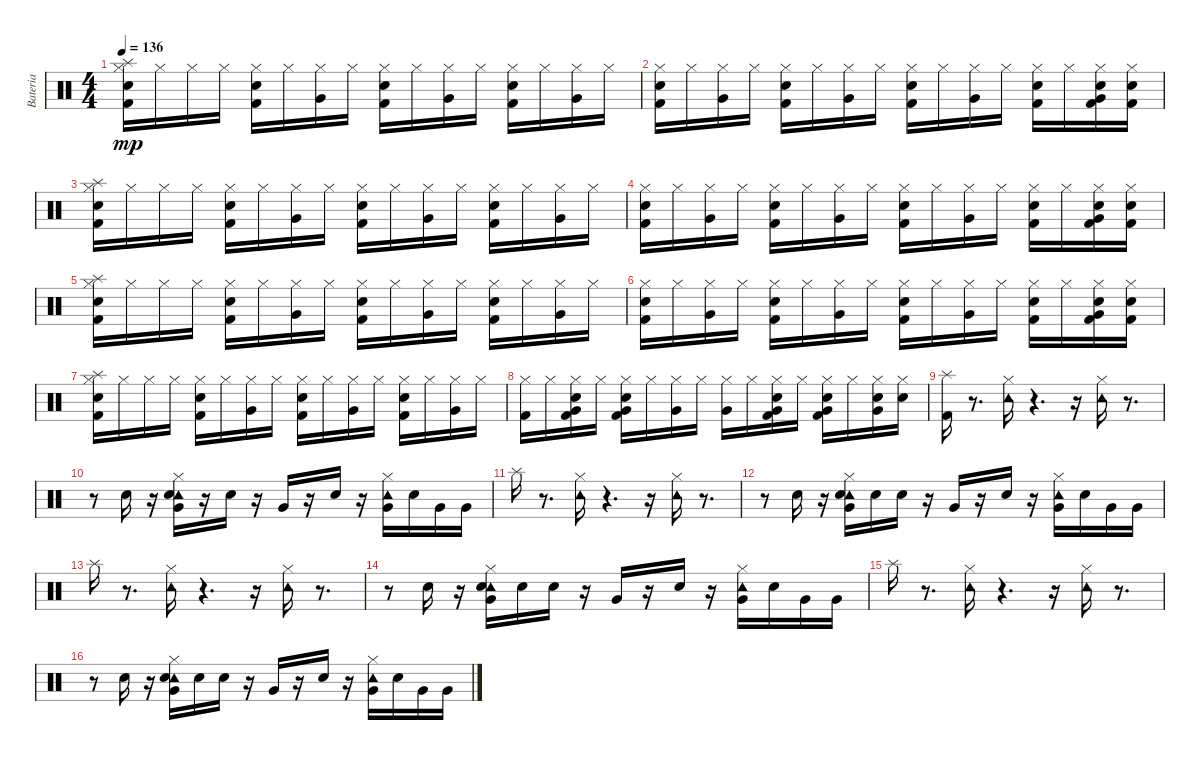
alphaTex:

\track ("Bateria" "Bateria") {instrument percussion}
\staff {score}
\articulation defaults
\ts (4 4)
\tempo 136
\clef neutral
\ks c
("Hi-Hat (closed)" "Splash (hit)" "Kick (hit) 2" "Snare (hit) 2").16{dy mp} "Hi-Hat (closed)".16 "Hi-Hat (closed)".16 "Hi-Hat (closed)".16 ("Hi-Hat (closed)" "Kick (hit) 2" "Snare (hit) 2").16 "Hi-Hat (closed)".16 ("Hi-Hat (closed)" "Very Low Tom (hit)").16 "Hi-Hat (closed)".16 ("Hi-Hat (closed)" "Kick (hit) 2" "Snare (hit) 2").16 "Hi-Hat (closed)".16 ("Hi-Hat (closed)" "Very Low Tom (hit)").16 "Hi-Hat (closed)".16 ("Hi-Hat (closed)" "Kick (hit) 2" "Snare (hit) 2").16 "Hi-Hat (closed)".16 ("Hi-Hat (closed)" "Very Low Tom (hit)").16 "Hi-Hat (closed)".16 |
("Hi-Hat (closed)" "Kick (hit) 2" "Snare (hit) 2").16 "Hi-Hat (closed)".16 ("Hi-Hat (closed)" "Very Low Tom (hit)").16 "Hi-Hat (closed)".16 ("Hi-Hat (closed)" "Kick (hit) 2" "Snare (hit) 2").16 "Hi-Hat (closed)".16 ("Hi-Hat (closed)" "Very Low Tom (hit)").16 "Hi-Hat (closed)".16 ("Hi-Hat (closed)" "Kick (hit) 2" "Snare (hit) 2").16 "Hi-Hat (closed)".16 ("Hi-Hat (closed)" "Very Low Tom (hit)").16 "Hi-Hat (closed)".16 ("Hi-Hat (closed)" "Kick (hit) 2" "Snare (hit) 2").16 "Hi-Hat (closed)".16 ("Hi-Hat (closed)" "Snare (hit) 2" "Kick (hit) 2" "Very Low Tom (hit)").16 ("Hi-Hat (closed)" "Snare (hit) 2" "Kick (hit) 2").16 |
("Hi-Hat (closed)" "Snare (hit) 2" "Kick (hit) 2" "Splash (hit)").16 "Hi-Hat (closed)".16 "Hi-Hat (closed)".16 "Hi-Hat (closed)".16 ("Hi-Hat (closed)" "Kick (hit) 2" "Snare (hit) 2").16 "Hi-Hat (closed)".16 ("Hi-Hat (closed)" "Very Low Tom (hit)").16 "Hi-Hat (closed)".16 ("Hi-Hat (closed)" "Kick (hit) 2" "Snare (hit) 2").16 "Hi-Hat (closed)".16 ("Hi-Hat (closed)" "Very Low Tom (hit)").16 "Hi-Hat (closed)".16 ("Hi-Hat (closed)" "Kick (hit) 2" "Snare (hit) 2").16 "Hi-Hat (closed)".16 ("Hi-Hat (closed)" "Very Low Tom (hit)").16 "Hi-Hat (closed)".16 |
("Hi-Hat (closed)" "Kick (hit) 2" "Snare (hit) 2").16 "Hi-Hat (closed)".16 ("Hi-Hat (closed)" "Very Low Tom (hit)").16 "Hi-Hat (closed)".16 ("Hi-Hat (closed)" "Kick (hit) 2" "Snare (hit) 2").16 "Hi-Hat (closed)".16 ("Hi-Hat (closed)" "Very Low Tom (hit)").16 "Hi-Hat (closed)".16 ("Hi-Hat (closed)" "Kick (hit) 2" "Snare (hit) 2").16 "Hi-Hat (closed)".16 ("Hi-Hat (closed)" "Very Low Tom (hit)").16 "Hi-Hat (closed)".16 ("Hi-Hat (closed)" "Kick (hit) 2" "Snare (hit) 2").16 "Hi-Hat (closed)".16 ("Hi-Hat (closed)" "Snare (hit) 2" "Kick (hit) 2" "Very Low Tom (hit)").16 ("Hi-Hat (closed)" "Snare (hit) 2" "Kick (hit) 2").16 |
("Hi-Hat (closed)" "Splash (hit)" "Kick (hit) 2" "Snare (hit) 2").16 "Hi-Hat (closed)".16 "Hi-Hat (closed)".16 "Hi-Hat (closed)".16 ("Hi-Hat (closed)" "Kick (hit) 2" "Snare (hit) 2").16 "Hi-Hat (closed)".16 ("Hi-Hat (closed)" "Very Low Tom (hit)").16 "Hi-Hat (closed)".16 ("Hi-Hat (closed)" "Kick (hit) 2" "Snare (hit) 2").16 "Hi-Hat (closed)".16 ("Hi-Hat (closed)" "Very Low Tom (hit)").16 "Hi-Hat (closed)".16 ("Hi-Hat (closed)" "Kick (hit) 2" "Snare (hit) 2").16 "Hi-Hat (closed)".16 ("Hi-Hat (closed)" "Very Low Tom (hit)").16 "Hi-Hat (closed)".16 |
("Hi-Hat (closed)" "Kick (hit) 2" "Snare (hit) 2").16 "Hi-Hat (closed)".16 ("Hi-Hat (closed)" "Very Low Tom (hit)").16 "Hi-Hat (closed)".16 ("Hi-Hat (closed)" "Kick (hit) 2" "Snare (hit) 2").16 "Hi-Hat (closed)".16 ("Hi-Hat (closed)" "Very Low Tom (hit)").16 "Hi-Hat (closed)".16 ("Hi-Hat (closed)" "Kick (hit) 2" "Snare (hit) 2").16 "Hi-Hat (closed)".16 ("Hi-Hat (closed)" "Very Low Tom (hit)").16 "Hi-Hat (closed)".16 ("Hi-Hat (closed)" "Kick (hit) 2" "Snare (hit) 2").16 "Hi-Hat (closed)".16 ("Hi-Hat (closed)" "Snare (hit) 2" "Kick (hit) 2" "Very Low Tom (hit)").16 ("Hi-Hat (closed)" "Snare (hit) 2" "Kick (hit) 2").16 |
("Hi-Hat (closed)" "Snare (hit) 2" "Kick (hit) 2" "Splash (hit)").16 "Hi-Hat (closed)".16 "Hi-Hat (closed)".16 "Hi-Hat (closed)".16 ("Hi-Hat (closed)" "Kick (hit) 2" "Snare (hit) 2").16 "Hi-Hat (closed)".16 ("Hi-Hat (closed)" "Very Low Tom (hit)").16 "Hi-Hat (closed)".16 ("Hi-Hat (closed)" "Kick (hit) 2" "Snare (hit) 2").16 "Hi-Hat (closed)".16 ("Hi-Hat (closed)" "Very Low Tom (hit)").16 "Hi-Hat (closed)".16 ("Hi-Hat (closed)" "Kick (hit) 2" "Snare (hit) 2").16 "Hi-Hat (closed)".16 ("Hi-Hat (closed)" "Very Low Tom (hit)").16 "Hi-Hat (closed)".16 |
("Hi-Hat (closed)" "Kick (hit) 2").16 "Hi-Hat (closed)".16 ("Hi-Hat (closed)" "Very Low Tom (hit)" "Snare (hit) 2" "Kick (hit) 2").16 "Hi-Hat (closed)".16 ("Hi-Hat (closed)" "Kick (hit) 2" "Very Low Tom (hit)" "Snare (hit) 2").16 "Hi-Hat (closed)".16 ("Hi-Hat (closed)" "Very Low Tom (hit)").16 "Hi-Hat (closed)".16 ("Hi-Hat (closed)" "Very Low Tom (hit)").16 "Hi-Hat (closed)".16 ("Hi-Hat (closed)" "Snare (hit) 2" "Kick (hit) 2" "Very Low Tom (hit)").16 "Hi-Hat (closed)".16 ("Hi-Hat (closed)" "Kick (hit) 2" "Snare (hit) 2" "Very Low Tom (hit)").16 "Hi-Hat (closed)".16 ("Hi-Hat (closed)" "Snare (hit) 2" "Very Low Tom (hit)").16 ("Hi-Hat (closed)" "Snare (hit) 2").16 |
("Splash (hit)" "Kick (hit) 2").16{volume 16} r.8{d} ("Hi-Hat (closed)" "Tambourine (hit)").16{volume 16} r.4{d} r.16 ("Hi-Hat (closed)" "Tambourine (hit)").16{volume 14} r.8{d} |
r.8 "Snare (hit) 2".16{volume 14} r.16 ("Tambourine (hit)" "Hi-Hat (closed)" "Snare (hit) 2" "Very Low Tom (hit)").16{volume 14} r.16 "Snare (hit) 2".16{volume 13} r.16 "Very Low Tom (hit)".16{volume 13} r.16 "Snare (hit) 2".16{volume 13} r.16 ("Hi-Hat (closed)" "Tambourine (hit)" "Very Low Tom (hit)").16{volume 12} "Snare (hit) 2".16{volume 12} "Very Low Tom (hit)".16{volume 12} "Very Low Tom (hit)".16{volume 12} |
"Splash (hit)".16{volume 12} r.8{d} ("Tambourine (hit)" "Hi-Hat (closed)").16{volume 12} r.4{d} r.16 ("Hi-Hat (closed)" "Tambourine (hit)").16{volume 10} r.8{d} |
r.8 "Snare (hit) 2".16{volume 10} r.16 ("Tambourine (hit)" "Hi-Hat (closed)" "Snare (hit) 2" "Very Low Tom (hit)").16{volume 10} "Snare (hit) 2".16{volume 9} "Snare (hit) 2".16{volume 9} r.16 "Very Low Tom (hit)".16{volume 9} r.16 "Snare (hit) 2".16{volume 9} r.16 ("Hi-Hat (closed)" "Tambourine (hit)" "Very Low Tom (hit)").16{volume 8} "Snare (hit) 2".16{volume 8} "Very Low Tom (hit)".16{volume 8} "Very Low Tom (hit)".16{volume 8} |
"Splash (hit)".16{volume 8} r.8{d} ("Hi-Hat (closed)" "Tambourine (hit)").16{volume 8} r.4{d} r.16 ("Hi-Hat (closed)" "Tambourine (hit)").16{volume 6} r.8{d} |
r.8 "Snare (hit) 2".16{volume 6} r.16 ("Tambourine (hit)" "Hi-Hat (closed)" "Snare (hit) 2" "Very Low Tom (hit)").16{volume 6} "Snare (hit) 2".16{volume 5} "Snare (hit) 2".16{volume 5} r.16 "Very Low Tom (hit)".16{volume 5} r.16 "Snare (hit) 2".16{volume 5} r.16 ("Hi-Hat (closed)" "Tambourine (hit)" "Very Low Tom (hit)").16{volume 4} "Snare (hit) 2".16{volume 4} "Very Low Tom (hit)".16{volume 4} "Very Low Tom (hit)".16{volume 4} |
"Splash (hit)".16{volume 4} r.8{d} ("Tambourine (hit)" "Hi-Hat (closed)").16{volume 4} r.4{d} r.16 ("Hi-Hat (closed)" "Tambourine (hit)").16{volume 2} r.8{d} |
r.8 "Snare (hit) 2".16{volume 2} r.16 ("Tambourine (hit)" "Hi-Hat (closed)" "Snare (hit) 2" "Very Low Tom (hit)").16{volume 2} "Snare (hit) 2".16{volume 1} "Snare (hit) 2".16{volume 1} r.16 "Very Low Tom (hit)".16{volume 1} r.16 "Snare (hit) 2".16{volume 1} r.16 ("Hi-Hat (closed)" "Tambourine (hit)" "Very Low Tom (hit)").16{volume 0} "Snare (hit) 2".16{volume 0} "Very Low Tom (hit)".16{volume 0} "Very Low Tom (hit)".16{volume 0}
